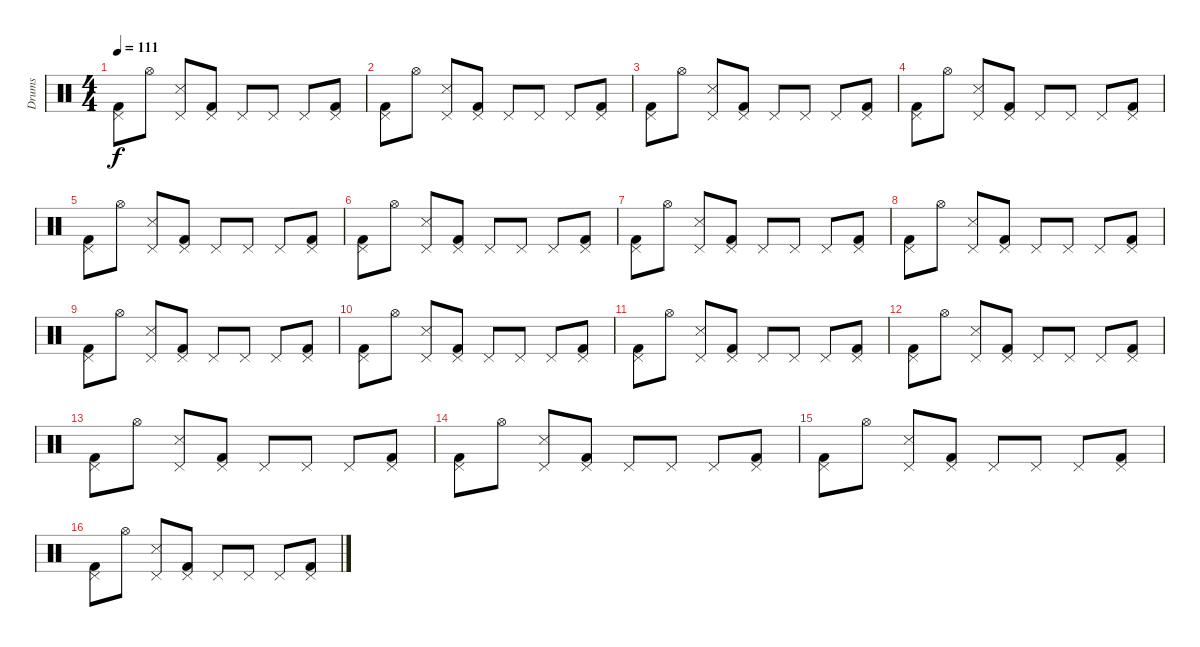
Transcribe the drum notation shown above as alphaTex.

\track ("Drums" "Drums") {instrument percussion}
\staff {score}
\articulation defaults
\ts (4 4)
\tempo 111
\clef neutral
\ks c
("Pedal Hi-Hat (hit)" "Kick (hit) 2").8{dy f} "Hi-Hat (open)".8 ("Pedal Hi-Hat (hit)" "Snare (side stick) 3").8 ("Pedal Hi-Hat (hit)" "Kick (hit) 2").8 "Pedal Hi-Hat (hit)".8 "Pedal Hi-Hat (hit)".8 "Pedal Hi-Hat (hit)".8 ("Pedal Hi-Hat (hit)" "Kick (hit) 2").8 |
("Pedal Hi-Hat (hit)" "Kick (hit) 2").8 "Hi-Hat (open)".8 ("Pedal Hi-Hat (hit)" "Snare (side stick) 3").8 ("Pedal Hi-Hat (hit)" "Kick (hit) 2").8 "Pedal Hi-Hat (hit)".8 "Pedal Hi-Hat (hit)".8 "Pedal Hi-Hat (hit)".8 ("Pedal Hi-Hat (hit)" "Kick (hit) 2").8 |
("Pedal Hi-Hat (hit)" "Kick (hit) 2").8 "Hi-Hat (open)".8 ("Pedal Hi-Hat (hit)" "Snare (side stick) 3").8 ("Pedal Hi-Hat (hit)" "Kick (hit) 2").8 "Pedal Hi-Hat (hit)".8 "Pedal Hi-Hat (hit)".8 "Pedal Hi-Hat (hit)".8 ("Pedal Hi-Hat (hit)" "Kick (hit) 2").8 |
("Pedal Hi-Hat (hit)" "Kick (hit) 2").8 "Hi-Hat (open)".8 ("Pedal Hi-Hat (hit)" "Snare (side stick) 3").8 ("Pedal Hi-Hat (hit)" "Kick (hit) 2").8 "Pedal Hi-Hat (hit)".8 "Pedal Hi-Hat (hit)".8 "Pedal Hi-Hat (hit)".8 ("Pedal Hi-Hat (hit)" "Kick (hit) 2").8 |
("Pedal Hi-Hat (hit)" "Kick (hit) 2").8 "Hi-Hat (open)".8 ("Pedal Hi-Hat (hit)" "Snare (side stick) 3").8 ("Pedal Hi-Hat (hit)" "Kick (hit) 2").8 "Pedal Hi-Hat (hit)".8 "Pedal Hi-Hat (hit)".8 "Pedal Hi-Hat (hit)".8 ("Pedal Hi-Hat (hit)" "Kick (hit) 2").8 |
("Pedal Hi-Hat (hit)" "Kick (hit) 2").8 "Hi-Hat (open)".8 ("Pedal Hi-Hat (hit)" "Snare (side stick) 3").8 ("Pedal Hi-Hat (hit)" "Kick (hit) 2").8 "Pedal Hi-Hat (hit)".8 "Pedal Hi-Hat (hit)".8 "Pedal Hi-Hat (hit)".8 ("Pedal Hi-Hat (hit)" "Kick (hit) 2").8 |
("Pedal Hi-Hat (hit)" "Kick (hit) 2").8 "Hi-Hat (open)".8 ("Pedal Hi-Hat (hit)" "Snare (side stick) 3").8 ("Pedal Hi-Hat (hit)" "Kick (hit) 2").8 "Pedal Hi-Hat (hit)".8 "Pedal Hi-Hat (hit)".8 "Pedal Hi-Hat (hit)".8 ("Pedal Hi-Hat (hit)" "Kick (hit) 2").8 |
("Pedal Hi-Hat (hit)" "Kick (hit) 2").8 "Hi-Hat (open)".8 ("Pedal Hi-Hat (hit)" "Snare (side stick) 3").8 ("Pedal Hi-Hat (hit)" "Kick (hit) 2").8 "Pedal Hi-Hat (hit)".8 "Pedal Hi-Hat (hit)".8 "Pedal Hi-Hat (hit)".8 ("Pedal Hi-Hat (hit)" "Kick (hit) 2").8 |
("Pedal Hi-Hat (hit)" "Kick (hit) 2").8 "Hi-Hat (open)".8 ("Pedal Hi-Hat (hit)" "Snare (side stick) 3").8 ("Pedal Hi-Hat (hit)" "Kick (hit) 2").8 "Pedal Hi-Hat (hit)".8 "Pedal Hi-Hat (hit)".8 "Pedal Hi-Hat (hit)".8 ("Pedal Hi-Hat (hit)" "Kick (hit) 2").8 |
("Pedal Hi-Hat (hit)" "Kick (hit) 2").8 "Hi-Hat (open)".8 ("Pedal Hi-Hat (hit)" "Snare (side stick) 3").8 ("Pedal Hi-Hat (hit)" "Kick (hit) 2").8 "Pedal Hi-Hat (hit)".8 "Pedal Hi-Hat (hit)".8 "Pedal Hi-Hat (hit)".8 ("Pedal Hi-Hat (hit)" "Kick (hit) 2").8 |
("Pedal Hi-Hat (hit)" "Kick (hit) 2").8 "Hi-Hat (open)".8 ("Pedal Hi-Hat (hit)" "Snare (side stick) 3").8 ("Pedal Hi-Hat (hit)" "Kick (hit) 2").8 "Pedal Hi-Hat (hit)".8 "Pedal Hi-Hat (hit)".8 "Pedal Hi-Hat (hit)".8 ("Pedal Hi-Hat (hit)" "Kick (hit) 2").8 |
("Pedal Hi-Hat (hit)" "Kick (hit) 2").8 "Hi-Hat (open)".8 ("Pedal Hi-Hat (hit)" "Snare (side stick) 3").8 ("Pedal Hi-Hat (hit)" "Kick (hit) 2").8 "Pedal Hi-Hat (hit)".8 "Pedal Hi-Hat (hit)".8 "Pedal Hi-Hat (hit)".8 ("Pedal Hi-Hat (hit)" "Kick (hit) 2").8 |
("Pedal Hi-Hat (hit)" "Kick (hit) 2").8 "Hi-Hat (open)".8 ("Pedal Hi-Hat (hit)" "Snare (side stick) 3").8 ("Pedal Hi-Hat (hit)" "Kick (hit) 2").8 "Pedal Hi-Hat (hit)".8 "Pedal Hi-Hat (hit)".8 "Pedal Hi-Hat (hit)".8 ("Pedal Hi-Hat (hit)" "Kick (hit) 2").8 |
("Pedal Hi-Hat (hit)" "Kick (hit) 2").8 "Hi-Hat (open)".8 ("Pedal Hi-Hat (hit)" "Snare (side stick) 3").8 ("Pedal Hi-Hat (hit)" "Kick (hit) 2").8 "Pedal Hi-Hat (hit)".8 "Pedal Hi-Hat (hit)".8 "Pedal Hi-Hat (hit)".8 ("Pedal Hi-Hat (hit)" "Kick (hit) 2").8 |
("Pedal Hi-Hat (hit)" "Kick (hit) 2").8 "Hi-Hat (open)".8 ("Pedal Hi-Hat (hit)" "Snare (side stick) 3").8 ("Pedal Hi-Hat (hit)" "Kick (hit) 2").8 "Pedal Hi-Hat (hit)".8 "Pedal Hi-Hat (hit)".8 "Pedal Hi-Hat (hit)".8 ("Pedal Hi-Hat (hit)" "Kick (hit) 2").8 |
("Pedal Hi-Hat (hit)" "Kick (hit) 2").8 "Hi-Hat (open)".8 ("Pedal Hi-Hat (hit)" "Snare (side stick) 3").8 ("Pedal Hi-Hat (hit)" "Kick (hit) 2").8 "Pedal Hi-Hat (hit)".8 "Pedal Hi-Hat (hit)".8 "Pedal Hi-Hat (hit)".8 ("Pedal Hi-Hat (hit)" "Kick (hit) 2").8
